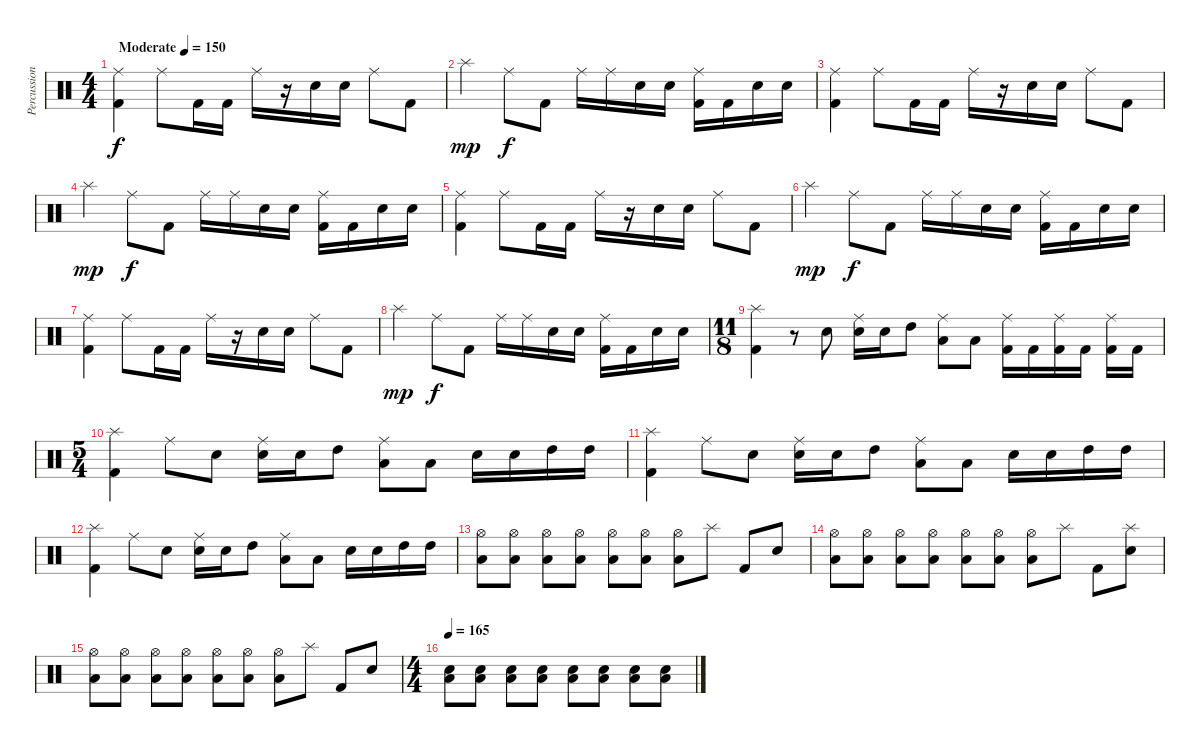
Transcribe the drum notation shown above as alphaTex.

\track ("Percussion" "Percussion") {instrument percussion}
\staff {score}
\articulation defaults
\ts (4 4)
\tempo (150 "Moderate")
\clef neutral
\ks c
("Ride (middle)" "Kick (hit) 2").4{dy f} "Ride (middle)".8 "Kick (hit) 2".16 "Kick (hit) 2".16 "Ride (middle)".16 r.16 "Electric Snare (hit)".16 "Electric Snare (hit)".16 "Ride (middle)".8 "Kick (hit) 2".8 |
"Splash (hit)".4{dy mp} "Ride (middle)".8{dy f} "Kick (hit) 2".8 "Ride (middle)".16 "Ride (middle)".16 "Electric Snare (hit)".16 "Electric Snare (hit)".16 ("Ride (middle)" "Kick (hit) 2").16 "Kick (hit) 2".16 "Electric Snare (hit)".16 "Electric Snare (hit)".16 |
("Ride (middle)" "Kick (hit) 2").4 "Ride (middle)".8 "Kick (hit) 2".16 "Kick (hit) 2".16 "Ride (middle)".16 r.16 "Electric Snare (hit)".16 "Electric Snare (hit)".16 "Ride (middle)".8 "Kick (hit) 2".8 |
"Splash (hit)".4{dy mp} "Ride (middle)".8{dy f} "Kick (hit) 2".8 "Ride (middle)".16 "Ride (middle)".16 "Electric Snare (hit)".16 "Electric Snare (hit)".16 ("Ride (middle)" "Kick (hit) 2").16 "Kick (hit) 2".16 "Electric Snare (hit)".16 "Electric Snare (hit)".16 |
("Ride (middle)" "Kick (hit) 2").4 "Ride (middle)".8 "Kick (hit) 2".16 "Kick (hit) 2".16 "Ride (middle)".16 r.16 "Electric Snare (hit)".16 "Electric Snare (hit)".16 "Ride (middle)".8 "Kick (hit) 2".8 |
"Splash (hit)".4{dy mp} "Ride (middle)".8{dy f} "Kick (hit) 2".8 "Ride (middle)".16 "Ride (middle)".16 "Electric Snare (hit)".16 "Electric Snare (hit)".16 ("Ride (middle)" "Kick (hit) 2").16 "Kick (hit) 2".16 "Electric Snare (hit)".16 "Electric Snare (hit)".16 |
("Ride (middle)" "Kick (hit) 2").4 "Ride (middle)".8 "Kick (hit) 2".16 "Kick (hit) 2".16 "Ride (middle)".16 r.16 "Electric Snare (hit)".16 "Electric Snare (hit)".16 "Ride (middle)".8 "Kick (hit) 2".8 |
"Splash (hit)".4{dy mp} "Ride (middle)".8{dy f} "Kick (hit) 2".8 "Ride (middle)".16 "Ride (middle)".16 "Electric Snare (hit)".16 "Electric Snare (hit)".16 ("Ride (middle)" "Kick (hit) 2").16 "Kick (hit) 2".16 "Electric Snare (hit)".16 "Electric Snare (hit)".16 |
\ts (11 8)
("Splash (hit)" "Kick (hit) 2").4 r.8 "Electric Snare (hit)".8 ("Ride (middle)" "Electric Snare (hit)").16 "Electric Snare (hit)".16 "High Tom (hit)".8 ("Ride (middle)" "Low Tom (hit)").8 "Low Floor Tom (hit)".8 ("Ride (middle)" "Kick (hit) 2").16 "Kick (hit) 2".16 ("Ride (middle)" "Kick (hit) 2").16 "Kick (hit) 2".16 ("Ride (middle)" "Kick (hit) 2").16 "Kick (hit) 2".16 |
\ts (5 4)
("Splash (hit)" "Kick (hit) 2").4 "Ride (middle)".8 "Electric Snare (hit)".8 ("Ride (middle)" "Electric Snare (hit)").16 "Electric Snare (hit)".16 "High Tom (hit)".8 ("Ride (middle)" "Low Tom (hit)").8 "Low Floor Tom (hit)".8 "Electric Snare (hit)".16 "Electric Snare (hit)".16 "High Tom (hit)".16 "High Tom (hit)".16 |
("Splash (hit)" "Kick (hit) 2").4 "Ride (middle)".8 "Electric Snare (hit)".8 ("Ride (middle)" "Electric Snare (hit)").16 "Electric Snare (hit)".16 "High Tom (hit)".8 ("Ride (middle)" "Low Tom (hit)").8 "Low Floor Tom (hit)".8 "Electric Snare (hit)".16 "Electric Snare (hit)".16 "High Tom (hit)".16 "High Tom (hit)".16 |
("Splash (hit)" "Kick (hit) 2").4 "Ride (middle)".8 "Electric Snare (hit)".8 ("Ride (middle)" "Electric Snare (hit)").16 "Electric Snare (hit)".16 "High Tom (hit)".8 ("Ride (middle)" "Low Tom (hit)").8 "Low Floor Tom (hit)".8 "Electric Snare (hit)".16 "Electric Snare (hit)".16 "High Tom (hit)".16 "High Tom (hit)".16 |
("Hi-Hat (open)" "Low Floor Tom (hit)").8 ("Hi-Hat (open)" "Low Floor Tom (hit)").8 ("Hi-Hat (open)" "Low Floor Tom (hit)").8 ("Hi-Hat (open)" "Low Floor Tom (hit)").8 ("Hi-Hat (open)" "Low Floor Tom (hit)").8 ("Hi-Hat (open)" "Low Floor Tom (hit)").8 ("Hi-Hat (open)" "Low Floor Tom (hit)").8 "Splash (hit)".8 "Kick (hit) 2".8 "Electric Snare (hit)".8 |
("Hi-Hat (open)" "Low Floor Tom (hit)").8 ("Hi-Hat (open)" "Low Floor Tom (hit)").8 ("Hi-Hat (open)" "Low Floor Tom (hit)").8 ("Hi-Hat (open)" "Low Floor Tom (hit)").8 ("Hi-Hat (open)" "Low Floor Tom (hit)").8 ("Hi-Hat (open)" "Low Floor Tom (hit)").8 ("Hi-Hat (open)" "Low Floor Tom (hit)").8 "Splash (hit)".8 "Kick (hit) 2".8 ("Splash (hit)" "Electric Snare (hit)").8 |
("Hi-Hat (open)" "Low Floor Tom (hit)").8 ("Hi-Hat (open)" "Low Floor Tom (hit)").8 ("Hi-Hat (open)" "Low Floor Tom (hit)").8 ("Hi-Hat (open)" "Low Floor Tom (hit)").8 ("Hi-Hat (open)" "Low Floor Tom (hit)").8 ("Hi-Hat (open)" "Low Floor Tom (hit)").8 ("Hi-Hat (open)" "Low Floor Tom (hit)").8 "Splash (hit)".8 "Kick (hit) 2".8 "Electric Snare (hit)".8 |
\ts (4 4)
\tempo 165
("Low Floor Tom (hit)" "Electric Snare (hit)").8 ("Low Floor Tom (hit)" "Electric Snare (hit)").8 ("Low Floor Tom (hit)" "Electric Snare (hit)").8 ("Low Floor Tom (hit)" "Electric Snare (hit)").8 ("Low Floor Tom (hit)" "Electric Snare (hit)").8 ("Low Floor Tom (hit)" "Electric Snare (hit)").8 ("Low Floor Tom (hit)" "Electric Snare (hit)").8 ("Low Floor Tom (hit)" "Electric Snare (hit)").8
